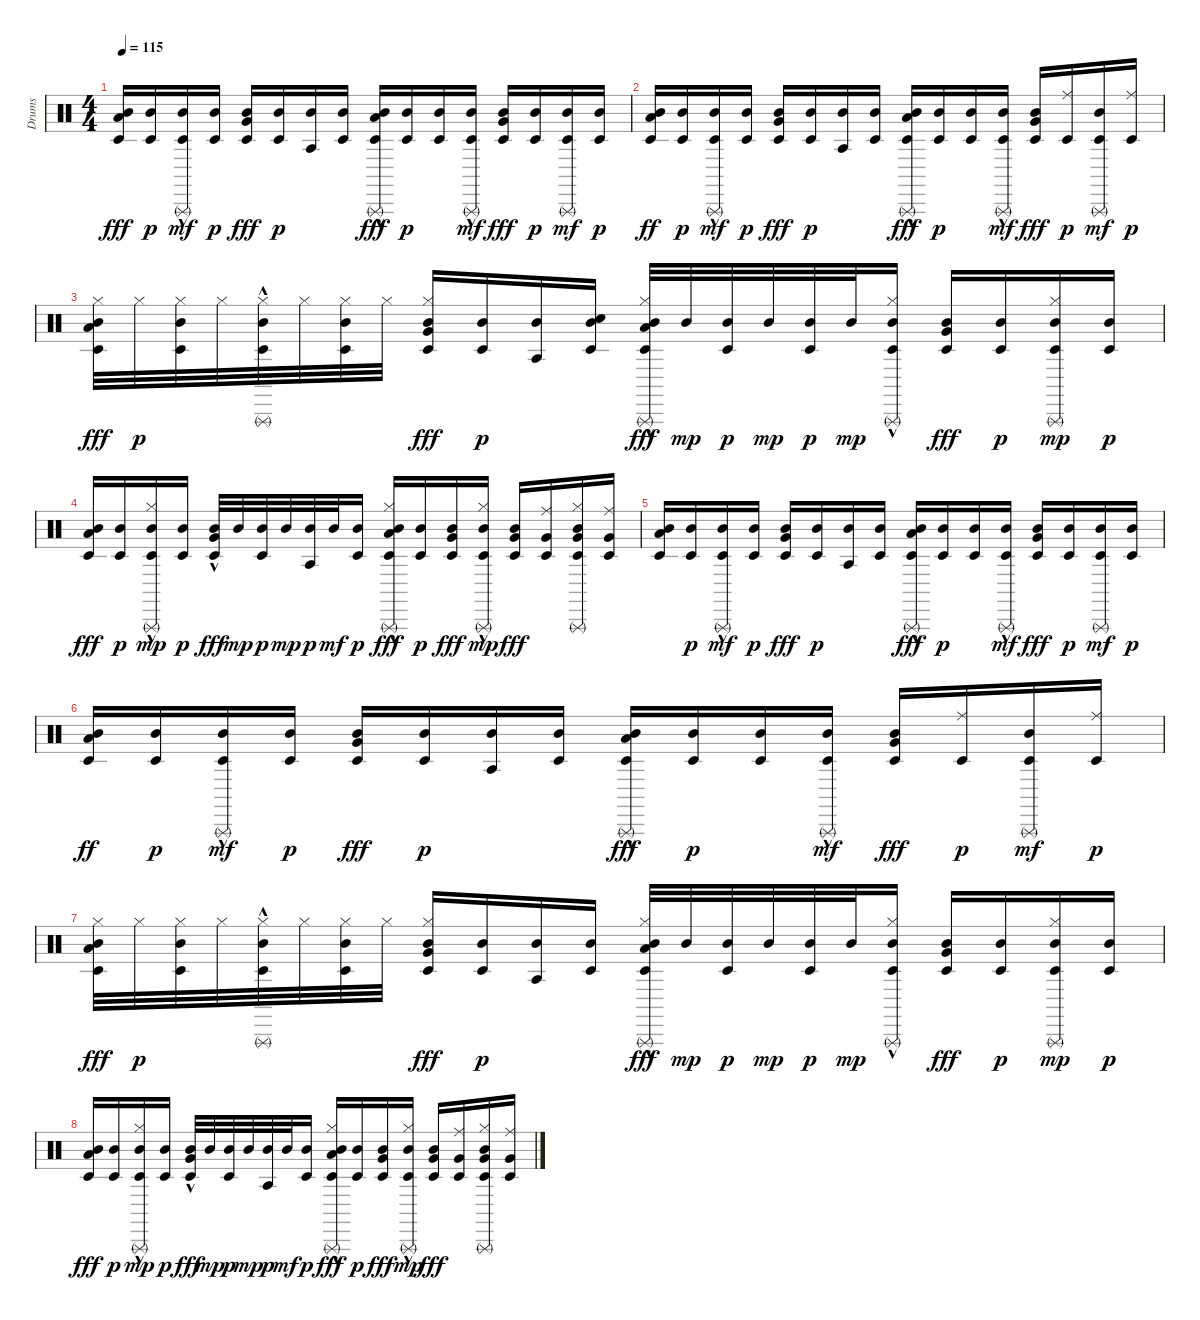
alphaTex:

\track ("Drums" "Drums") {instrument percussion}
\staff {score}
\articulation defaults
\ts (4 4)
\tempo 115
\clef neutral
\ks c
("Mid Tom (hit)" "Timbale low (hit)" "Low Floor Tom (hit)").16{dy fff} ("Mid Tom (hit)" "Timbale low (hit)").16{dy p} ("Mid Tom (hit)" "Timbale low (hit)" "Triangle (rnute)"{hac}).16{dy mf} ("Mid Tom (hit)" "Timbale low (hit)").16{dy p} ("Mid Tom (hit)" "Timbale low (hit)" "Very Low Tom (hit)").16{dy fff} ("Mid Tom (hit)" "Timbale low (hit)").16{dy p} ("Mid Tom (hit)" "Agogo tow (hit)").16 ("Mid Tom (hit)" "Timbale low (hit)").16 ("Mid Tom (hit)" "Timbale low (hit)" "Triangle (rnute)"{hac} "Low Floor Tom (hit)").16{dy fff} ("Mid Tom (hit)" "Timbale low (hit)").16{dy p} ("Mid Tom (hit)" "Timbale low (hit)").16 ("Mid Tom (hit)" "Timbale low (hit)" "Triangle (rnute)"{hac}).16{dy mf} ("Mid Tom (hit)" "Timbale low (hit)" "Very Low Tom (hit)").16{dy fff} ("Mid Tom (hit)" "Timbale low (hit)").16{dy p} ("Mid Tom (hit)" "Timbale low (hit)" "Triangle (rnute)").16{dy mf} ("Mid Tom (hit)" "Timbale low (hit)").16{dy p} |
("Mid Tom (hit)" "Timbale low (hit)" "Low Floor Tom (hit)").16{dy ff} ("Mid Tom (hit)" "Timbale low (hit)").16{dy p} ("Mid Tom (hit)" "Timbale low (hit)" "Triangle (rnute)"{hac}).16{dy mf} ("Mid Tom (hit)" "Timbale low (hit)").16{dy p} ("Mid Tom (hit)" "Timbale low (hit)" "Very Low Tom (hit)").16{dy fff} ("Mid Tom (hit)" "Timbale low (hit)").16{dy p} ("Mid Tom (hit)" "Agogo tow (hit)").16 ("Mid Tom (hit)" "Timbale low (hit)").16 ("Mid Tom (hit)" "Timbale low (hit)" "Triangle (rnute)"{hac} "Low Floor Tom (hit)").16{dy fff} ("Mid Tom (hit)" "Timbale low (hit)").16{dy p} ("Mid Tom (hit)" "Timbale low (hit)").16 ("Mid Tom (hit)" "Timbale low (hit)" "Triangle (rnute)"{hac}).16{dy mf} ("Mid Tom (hit)" "Timbale low (hit)" "Very Low Tom (hit)").16{dy fff} ("Ride (middle)" "Timbale low (hit)").16{dy p} ("Mid Tom (hit)" "Timbale low (hit)" "Triangle (rnute)").16{dy mf} ("Ride (middle)" "Timbale low (hit)").16{dy p} |
("Mid Tom (hit)" "Timbale low (hit)" "Hi-Hat (closed)" "Low Floor Tom (hit)").32{dy fff} "Hi-Hat (closed)".32{dy p} ("Mid Tom (hit)" "Timbale low (hit)" "Hi-Hat (closed)").32 "Hi-Hat (closed)".32 ("Mid Tom (hit)" "Timbale low (hit)" "Triangle (rnute)"{hac} "Hi-Hat (closed)").32 "Hi-Hat (closed)".32 ("Mid Tom (hit)" "Timbale low (hit)" "Hi-Hat (closed)").32 "Hi-Hat (closed)".32 ("Mid Tom (hit)" "Timbale low (hit)" "Hi-Hat (closed)" "Very Low Tom (hit)").16{dy fff} ("Mid Tom (hit)" "Timbale low (hit)").16{dy p} ("Mid Tom (hit)" "Agogo tow (hit)").16 ("Mid Tom (hit)" "Snare (hit)" "Timbale low (hit)").16 ("Mid Tom (hit)" "Timbale low (hit)" "Triangle (rnute)"{hac} "Hi-Hat (closed)"{hac} "Low Floor Tom (hit)").32{dy fff} "Mid Tom (hit)".32{dy mp} ("Mid Tom (hit)" "Timbale low (hit)").32{dy p} "Mid Tom (hit)".32{dy mp} ("Mid Tom (hit)" "Timbale low (hit)").32{dy p} "Mid Tom (hit)".32{dy mp} ("Mid Tom (hit)" "Timbale low (hit)" "Triangle (rnute)"{hac} "Hi-Hat (closed)"{hac}).16 ("Mid Tom (hit)" "Timbale low (hit)" "Very Low Tom (hit)").16{dy fff} ("Mid Tom (hit)" "Timbale low (hit)").16{dy p} ("Mid Tom (hit)" "Timbale low (hit)" "Triangle (rnute)" "Hi-Hat (closed)").16{dy mp} ("Mid Tom (hit)" "Timbale low (hit)").16{dy p} |
("Mid Tom (hit)" "Timbale low (hit)" "Low Floor Tom (hit)").16{dy fff} ("Mid Tom (hit)" "Timbale low (hit)").16{dy p} ("Mid Tom (hit)" "Timbale low (hit)" "Triangle (rnute)"{hac} "Hi-Hat (closed)"{hac}).16{dy mp} ("Mid Tom (hit)" "Timbale low (hit)").16{dy p} ("Mid Tom (hit)" "Timbale low (hit)" "Very Low Tom (hit)"{hac}).32{dy fff} "Mid Tom (hit)".32{dy mp} ("Mid Tom (hit)" "Timbale low (hit)").32{dy p} "Mid Tom (hit)".32{dy mp} ("Mid Tom (hit)" "Agogo tow (hit)").32{dy p} "Mid Tom (hit)".32{dy mf} ("Mid Tom (hit)" "Timbale low (hit)").16{dy p} ("Mid Tom (hit)" "Timbale low (hit)" "Triangle (rnute)"{hac} "Hi-Hat (closed)"{hac} "Low Floor Tom (hit)").16{dy fff} ("Mid Tom (hit)" "Timbale low (hit)").16{dy p} ("Mid Tom (hit)" "Timbale low (hit)" "Very Low Tom (hit)").16{dy fff} ("Mid Tom (hit)" "Timbale low (hit)" "Triangle (rnute)"{hac} "Hi-Hat (closed)"{hac}).16{dy mp} ("Mid Tom (hit)" "Timbale low (hit)" "Very Low Tom (hit)").16{dy fff} ("Ride (middle)" "Timbale low (hit)" "Very Low Tom (hit)").16 ("Mid Tom (hit)" "Timbale low (hit)" "Triangle (rnute)" "Hi-Hat (closed)" "Very Low Tom (hit)").16 ("Ride (middle)" "Timbale low (hit)" "Very Low Tom (hit)").16 |
("Mid Tom (hit)" "Timbale low (hit)" "Low Floor Tom (hit)").16 ("Mid Tom (hit)" "Timbale low (hit)").16{dy p} ("Mid Tom (hit)" "Timbale low (hit)" "Triangle (rnute)"{hac}).16{dy mf} ("Mid Tom (hit)" "Timbale low (hit)").16{dy p} ("Mid Tom (hit)" "Timbale low (hit)" "Very Low Tom (hit)").16{dy fff} ("Mid Tom (hit)" "Timbale low (hit)").16{dy p} ("Mid Tom (hit)" "Agogo tow (hit)").16 ("Mid Tom (hit)" "Timbale low (hit)").16 ("Mid Tom (hit)" "Timbale low (hit)" "Triangle (rnute)"{hac} "Low Floor Tom (hit)").16{dy fff} ("Mid Tom (hit)" "Timbale low (hit)").16{dy p} ("Mid Tom (hit)" "Timbale low (hit)").16 ("Mid Tom (hit)" "Timbale low (hit)" "Triangle (rnute)"{hac}).16{dy mf} ("Mid Tom (hit)" "Timbale low (hit)" "Very Low Tom (hit)").16{dy fff} ("Mid Tom (hit)" "Timbale low (hit)").16{dy p} ("Mid Tom (hit)" "Timbale low (hit)" "Triangle (rnute)").16{dy mf} ("Mid Tom (hit)" "Timbale low (hit)").16{dy p} |
("Mid Tom (hit)" "Timbale low (hit)" "Low Floor Tom (hit)").16{dy ff} ("Mid Tom (hit)" "Timbale low (hit)").16{dy p} ("Mid Tom (hit)" "Timbale low (hit)" "Triangle (rnute)"{hac}).16{dy mf} ("Mid Tom (hit)" "Timbale low (hit)").16{dy p} ("Mid Tom (hit)" "Timbale low (hit)" "Very Low Tom (hit)").16{dy fff} ("Mid Tom (hit)" "Timbale low (hit)").16{dy p} ("Mid Tom (hit)" "Agogo tow (hit)").16 ("Mid Tom (hit)" "Timbale low (hit)").16 ("Mid Tom (hit)" "Timbale low (hit)" "Triangle (rnute)"{hac} "Low Floor Tom (hit)").16{dy fff} ("Mid Tom (hit)" "Timbale low (hit)").16{dy p} ("Mid Tom (hit)" "Timbale low (hit)").16 ("Mid Tom (hit)" "Timbale low (hit)" "Triangle (rnute)"{hac}).16{dy mf} ("Mid Tom (hit)" "Timbale low (hit)" "Very Low Tom (hit)").16{dy fff} ("Ride (middle)" "Timbale low (hit)").16{dy p} ("Mid Tom (hit)" "Timbale low (hit)" "Triangle (rnute)").16{dy mf} ("Ride (middle)" "Timbale low (hit)").16{dy p} |
("Mid Tom (hit)" "Timbale low (hit)" "Hi-Hat (closed)" "Low Floor Tom (hit)").32{dy fff} "Hi-Hat (closed)".32{dy p} ("Mid Tom (hit)" "Timbale low (hit)" "Hi-Hat (closed)").32 "Hi-Hat (closed)".32 ("Mid Tom (hit)" "Timbale low (hit)" "Triangle (rnute)"{hac} "Hi-Hat (closed)").32 "Hi-Hat (closed)".32 ("Mid Tom (hit)" "Timbale low (hit)" "Hi-Hat (closed)").32 "Hi-Hat (closed)".32 ("Mid Tom (hit)" "Timbale low (hit)" "Hi-Hat (closed)" "Very Low Tom (hit)").16{dy fff} ("Mid Tom (hit)" "Timbale low (hit)").16{dy p} ("Mid Tom (hit)" "Agogo tow (hit)").16 ("Mid Tom (hit)" "Timbale low (hit)").16 ("Mid Tom (hit)" "Timbale low (hit)" "Triangle (rnute)"{hac} "Hi-Hat (closed)"{hac} "Low Floor Tom (hit)").32{dy fff} "Mid Tom (hit)".32{dy mp} ("Mid Tom (hit)" "Timbale low (hit)").32{dy p} "Mid Tom (hit)".32{dy mp} ("Mid Tom (hit)" "Timbale low (hit)").32{dy p} "Mid Tom (hit)".32{dy mp} ("Mid Tom (hit)" "Timbale low (hit)" "Triangle (rnute)"{hac} "Hi-Hat (closed)"{hac}).16 ("Mid Tom (hit)" "Timbale low (hit)" "Very Low Tom (hit)").16{dy fff} ("Mid Tom (hit)" "Timbale low (hit)").16{dy p} ("Mid Tom (hit)" "Timbale low (hit)" "Triangle (rnute)" "Hi-Hat (closed)").16{dy mp} ("Mid Tom (hit)" "Timbale low (hit)").16{dy p} |
("Mid Tom (hit)" "Timbale low (hit)" "Low Floor Tom (hit)").16{dy fff} ("Mid Tom (hit)" "Timbale low (hit)").16{dy p} ("Mid Tom (hit)" "Timbale low (hit)" "Triangle (rnute)"{hac} "Hi-Hat (closed)"{hac}).16{dy mp} ("Mid Tom (hit)" "Timbale low (hit)").16{dy p} ("Mid Tom (hit)" "Timbale low (hit)" "Very Low Tom (hit)"{hac}).32{dy fff} "Mid Tom (hit)".32{dy mp} ("Mid Tom (hit)" "Timbale low (hit)").32{dy p} "Mid Tom (hit)".32{dy mp} ("Mid Tom (hit)" "Agogo tow (hit)").32{dy p} "Mid Tom (hit)".32{dy mf} ("Mid Tom (hit)" "Timbale low (hit)").16{dy p} ("Mid Tom (hit)" "Timbale low (hit)" "Triangle (rnute)"{hac} "Hi-Hat (closed)"{hac} "Low Floor Tom (hit)").16{dy fff} ("Mid Tom (hit)" "Timbale low (hit)").16{dy p} ("Mid Tom (hit)" "Timbale low (hit)" "Very Low Tom (hit)").16{dy fff} ("Mid Tom (hit)" "Timbale low (hit)" "Triangle (rnute)"{hac} "Hi-Hat (closed)"{hac}).16{dy mp} ("Mid Tom (hit)" "Timbale low (hit)" "Very Low Tom (hit)").16{dy fff} ("Ride (middle)" "Timbale low (hit)" "Very Low Tom (hit)").16 ("Mid Tom (hit)" "Timbale low (hit)" "Triangle (rnute)" "Hi-Hat (closed)" "Very Low Tom (hit)").16 ("Ride (middle)" "Timbale low (hit)" "Very Low Tom (hit)").16
